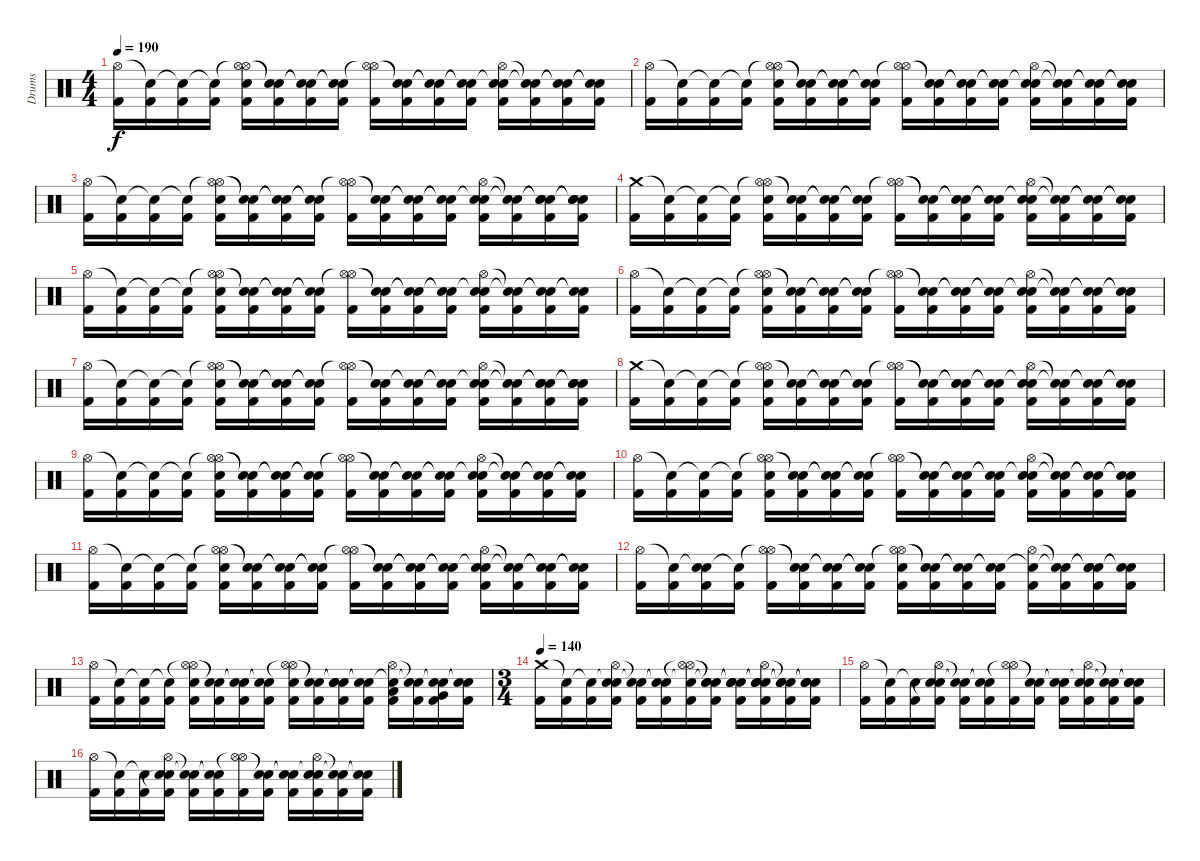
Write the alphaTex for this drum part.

\track ("Drums" "Drums") {instrument percussion}
\staff {score}
\articulation defaults
\ts (4 4)
\tempo 190
\clef neutral
\ks c
("Hi-Hat (open)" "Kick (hit) 2").16{dy f} ("Snare (hit)"{t} "Kick (hit) 2").16 ("Snare (hit)"{t} "Kick (hit) 2").16 ("Snare (hit)"{t} "Kick (hit) 2").16 ("Hi-Hat (open)"{t} "Hi-Hat (open)" "Electric Snare (hit)" "Kick (hit) 2").16 ("Snare (hit)"{t} "Snare (hit)"{t} "Kick (hit) 2").16 ("Snare (hit)"{t} "Snare (hit)"{t} "Kick (hit) 2").16 ("Snare (hit)"{t} "Snare (hit)"{t} "Kick (hit) 2").16 ("Hi-Hat (open)" "Hi-Hat (open)"{t} "Kick (hit) 2").16 ("Snare (hit)"{t} "Snare (hit)"{t} "Kick (hit) 2").16 ("Snare (hit)"{t} "Snare (hit)"{t} "Kick (hit) 2").16 ("Snare (hit)"{t} "Snare (hit)"{t} "Kick (hit) 2").16 ("Snare (hit)"{t} "Hi-Hat (open)" "Electric Snare (hit)" "Kick (hit) 2").16 ("Snare (hit)"{t} "Snare (hit)"{t} "Kick (hit) 2").16 ("Snare (hit)"{t} "Snare (hit)"{t} "Kick (hit) 2").16 ("Snare (hit)"{t} "Snare (hit)"{t} "Kick (hit) 2").16 |
("Hi-Hat (open)" "Kick (hit) 2").16 ("Snare (hit)"{t} "Kick (hit) 2").16 ("Snare (hit)"{t} "Kick (hit) 2").16 ("Snare (hit)"{t} "Kick (hit) 2").16 ("Hi-Hat (open)"{t} "Hi-Hat (open)" "Electric Snare (hit)" "Kick (hit) 2").16 ("Snare (hit)"{t} "Snare (hit)"{t} "Kick (hit) 2").16 ("Snare (hit)"{t} "Snare (hit)"{t} "Kick (hit) 2").16 ("Snare (hit)"{t} "Snare (hit)"{t} "Kick (hit) 2").16 ("Hi-Hat (open)" "Hi-Hat (open)"{t} "Kick (hit) 2").16 ("Snare (hit)"{t} "Snare (hit)"{t} "Kick (hit) 2").16 ("Snare (hit)"{t} "Snare (hit)"{t} "Kick (hit) 2").16 ("Snare (hit)"{t} "Snare (hit)"{t} "Kick (hit) 2").16 ("Snare (hit)"{t} "Hi-Hat (open)" "Electric Snare (hit)" "Kick (hit) 2").16 ("Snare (hit)"{t} "Snare (hit)"{t} "Kick (hit) 2").16 ("Snare (hit)"{t} "Snare (hit)"{t} "Kick (hit) 2").16 ("Snare (hit)"{t} "Snare (hit)"{t} "Kick (hit) 2").16 |
("Hi-Hat (open)" "Kick (hit) 2").16 ("Snare (hit)"{t} "Kick (hit) 2").16 ("Snare (hit)"{t} "Kick (hit) 2").16 ("Snare (hit)"{t} "Kick (hit) 2").16 ("Hi-Hat (open)"{t} "Hi-Hat (open)" "Electric Snare (hit)" "Kick (hit) 2").16 ("Snare (hit)"{t} "Snare (hit)"{t} "Kick (hit) 2").16 ("Snare (hit)"{t} "Snare (hit)"{t} "Kick (hit) 2").16 ("Snare (hit)"{t} "Snare (hit)"{t} "Kick (hit) 2").16 ("Hi-Hat (open)" "Hi-Hat (open)"{t} "Kick (hit) 2").16 ("Snare (hit)"{t} "Snare (hit)"{t} "Kick (hit) 2").16 ("Snare (hit)"{t} "Snare (hit)"{t} "Kick (hit) 2").16 ("Snare (hit)"{t} "Snare (hit)"{t} "Kick (hit) 2").16 ("Snare (hit)"{t} "Hi-Hat (open)" "Electric Snare (hit)" "Kick (hit) 2").16 ("Snare (hit)"{t} "Snare (hit)"{t} "Kick (hit) 2").16 ("Snare (hit)"{t} "Snare (hit)"{t} "Electric Snare (hit)" "Kick (hit) 2").16 ("Snare (hit)"{t} "Snare (hit)"{t} "Electric Snare (hit)" "Kick (hit) 2").16 |
("Crash medium (hit)" "Kick (hit) 2").16 ("Snare (hit)"{t} "Kick (hit) 2").16 ("Snare (hit)"{t} "Kick (hit) 2").16 ("Snare (hit)"{t} "Kick (hit) 2").16 ("Hi-Hat (open)"{t} "Hi-Hat (open)" "Electric Snare (hit)" "Kick (hit) 2").16 ("Snare (hit)"{t} "Snare (hit)"{t} "Kick (hit) 2").16 ("Snare (hit)"{t} "Snare (hit)"{t} "Kick (hit) 2").16 ("Snare (hit)"{t} "Snare (hit)"{t} "Kick (hit) 2").16 ("Hi-Hat (open)" "Hi-Hat (open)"{t} "Kick (hit) 2").16 ("Snare (hit)"{t} "Snare (hit)"{t} "Kick (hit) 2").16 ("Snare (hit)"{t} "Snare (hit)"{t} "Kick (hit) 2").16 ("Snare (hit)"{t} "Snare (hit)"{t} "Kick (hit) 2").16 ("Snare (hit)"{t} "Hi-Hat (open)" "Electric Snare (hit)" "Kick (hit) 2").16 ("Snare (hit)"{t} "Snare (hit)"{t} "Kick (hit) 2").16 ("Snare (hit)"{t} "Snare (hit)"{t} "Kick (hit) 2").16 ("Snare (hit)"{t} "Snare (hit)"{t} "Kick (hit) 2").16 |
("Hi-Hat (open)" "Kick (hit) 2").16 ("Snare (hit)"{t} "Kick (hit) 2").16 ("Snare (hit)"{t} "Kick (hit) 2").16 ("Snare (hit)"{t} "Kick (hit) 2").16 ("Hi-Hat (open)"{t} "Hi-Hat (open)" "Electric Snare (hit)" "Kick (hit) 2").16 ("Snare (hit)"{t} "Snare (hit)"{t} "Kick (hit) 2").16 ("Snare (hit)"{t} "Snare (hit)"{t} "Kick (hit) 2").16 ("Snare (hit)"{t} "Snare (hit)"{t} "Kick (hit) 2").16 ("Hi-Hat (open)" "Hi-Hat (open)"{t} "Kick (hit) 2").16 ("Snare (hit)"{t} "Snare (hit)"{t} "Kick (hit) 2").16 ("Snare (hit)"{t} "Snare (hit)"{t} "Kick (hit) 2").16 ("Snare (hit)"{t} "Snare (hit)"{t} "Kick (hit) 2").16 ("Snare (hit)"{t} "Hi-Hat (open)" "Electric Snare (hit)" "Kick (hit) 2").16 ("Snare (hit)"{t} "Snare (hit)"{t} "Kick (hit) 2").16 ("Snare (hit)"{t} "Snare (hit)"{t} "Kick (hit) 2").16 ("Snare (hit)"{t} "Snare (hit)"{t} "Kick (hit) 2").16 |
("Hi-Hat (open)" "Kick (hit) 2").16 ("Snare (hit)"{t} "Kick (hit) 2").16 ("Snare (hit)"{t} "Kick (hit) 2").16 ("Snare (hit)"{t} "Kick (hit) 2").16 ("Hi-Hat (open)"{t} "Hi-Hat (open)" "Electric Snare (hit)" "Kick (hit) 2").16 ("Snare (hit)"{t} "Snare (hit)"{t} "Kick (hit) 2").16 ("Snare (hit)"{t} "Snare (hit)"{t} "Kick (hit) 2").16 ("Snare (hit)"{t} "Snare (hit)"{t} "Kick (hit) 2").16 ("Hi-Hat (open)" "Hi-Hat (open)"{t} "Kick (hit) 2").16 ("Snare (hit)"{t} "Snare (hit)"{t} "Kick (hit) 2").16 ("Snare (hit)"{t} "Snare (hit)"{t} "Kick (hit) 2").16 ("Snare (hit)"{t} "Snare (hit)"{t} "Kick (hit) 2").16 ("Snare (hit)"{t} "Hi-Hat (open)" "Electric Snare (hit)" "Kick (hit) 2").16 ("Snare (hit)"{t} "Snare (hit)"{t} "Kick (hit) 2").16 ("Snare (hit)"{t} "Snare (hit)"{t} "Kick (hit) 2").16 ("Snare (hit)"{t} "Snare (hit)"{t} "Kick (hit) 2").16 |
("Hi-Hat (open)" "Kick (hit) 2").16 ("Snare (hit)"{t} "Kick (hit) 2").16 ("Snare (hit)"{t} "Kick (hit) 2").16 ("Snare (hit)"{t} "Kick (hit) 2").16 ("Hi-Hat (open)"{t} "Hi-Hat (open)" "Electric Snare (hit)" "Kick (hit) 2").16 ("Snare (hit)"{t} "Snare (hit)"{t} "Kick (hit) 2").16 ("Snare (hit)"{t} "Snare (hit)"{t} "Kick (hit) 2").16 ("Snare (hit)"{t} "Snare (hit)"{t} "Kick (hit) 2").16 ("Hi-Hat (open)" "Hi-Hat (open)"{t} "Kick (hit) 2").16 ("Snare (hit)"{t} "Snare (hit)"{t} "Kick (hit) 2").16 ("Snare (hit)"{t} "Snare (hit)"{t} "Kick (hit) 2").16 ("Snare (hit)"{t} "Snare (hit)"{t} "Kick (hit) 2").16 ("Snare (hit)"{t} "Hi-Hat (open)" "Electric Snare (hit)" "Kick (hit) 2").16 ("Snare (hit)"{t} "Snare (hit)"{t} "Kick (hit) 2").16 ("Snare (hit)"{t} "Snare (hit)"{t} "Electric Snare (hit)" "Kick (hit) 2").16 ("Snare (hit)"{t} "Snare (hit)"{t} "Electric Snare (hit)" "Kick (hit) 2").16 |
("Crash medium (hit)" "Kick (hit) 2").16 ("Snare (hit)"{t} "Kick (hit) 2").16 ("Snare (hit)"{t} "Kick (hit) 2").16 ("Snare (hit)"{t} "Kick (hit) 2").16 ("Hi-Hat (open)"{t} "Hi-Hat (open)" "Electric Snare (hit)" "Kick (hit) 2").16 ("Snare (hit)"{t} "Snare (hit)"{t} "Kick (hit) 2").16 ("Snare (hit)"{t} "Snare (hit)"{t} "Kick (hit) 2").16 ("Snare (hit)"{t} "Snare (hit)"{t} "Kick (hit) 2").16 ("Hi-Hat (open)" "Hi-Hat (open)"{t} "Kick (hit) 2").16 ("Snare (hit)"{t} "Snare (hit)"{t} "Kick (hit) 2").16 ("Snare (hit)"{t} "Snare (hit)"{t} "Kick (hit) 2").16 ("Snare (hit)"{t} "Snare (hit)"{t} "Kick (hit) 2").16 ("Snare (hit)"{t} "Hi-Hat (open)" "Electric Snare (hit)" "Kick (hit) 2").16 ("Snare (hit)"{t} "Snare (hit)"{t} "Kick (hit) 2").16 ("Snare (hit)"{t} "Snare (hit)"{t} "Kick (hit) 2").16 ("Snare (hit)"{t} "Snare (hit)"{t} "Kick (hit) 2").16 |
("Hi-Hat (open)" "Kick (hit) 2").16 ("Snare (hit)"{t} "Kick (hit) 2").16 ("Snare (hit)"{t} "Kick (hit) 2").16 ("Snare (hit)"{t} "Kick (hit) 2").16 ("Hi-Hat (open)"{t} "Hi-Hat (open)" "Electric Snare (hit)" "Kick (hit) 2").16 ("Snare (hit)"{t} "Snare (hit)"{t} "Kick (hit) 2").16 ("Snare (hit)"{t} "Snare (hit)"{t} "Kick (hit) 2").16 ("Snare (hit)"{t} "Snare (hit)"{t} "Kick (hit) 2").16 ("Hi-Hat (open)" "Hi-Hat (open)"{t} "Kick (hit) 2").16 ("Snare (hit)"{t} "Snare (hit)"{t} "Kick (hit) 2").16 ("Snare (hit)"{t} "Snare (hit)"{t} "Kick (hit) 2").16 ("Snare (hit)"{t} "Snare (hit)"{t} "Kick (hit) 2").16 ("Snare (hit)"{t} "Hi-Hat (open)" "Electric Snare (hit)" "Kick (hit) 2").16 ("Snare (hit)"{t} "Snare (hit)"{t} "Kick (hit) 2").16 ("Snare (hit)"{t} "Snare (hit)"{t} "Kick (hit) 2").16 ("Snare (hit)"{t} "Snare (hit)"{t} "Kick (hit) 2").16 |
("Hi-Hat (open)" "Kick (hit) 2").16 ("Snare (hit)"{t} "Kick (hit) 2").16 ("Snare (hit)"{t} "Kick (hit) 2").16 ("Snare (hit)"{t} "Kick (hit) 2").16 ("Hi-Hat (open)"{t} "Hi-Hat (open)" "Electric Snare (hit)" "Kick (hit) 2").16 ("Snare (hit)"{t} "Snare (hit)"{t} "Kick (hit) 2").16 ("Snare (hit)"{t} "Snare (hit)"{t} "Kick (hit) 2").16 ("Snare (hit)"{t} "Snare (hit)"{t} "Kick (hit) 2").16 ("Hi-Hat (open)" "Hi-Hat (open)"{t} "Kick (hit) 2").16 ("Snare (hit)"{t} "Snare (hit)"{t} "Kick (hit) 2").16 ("Snare (hit)"{t} "Snare (hit)"{t} "Kick (hit) 2").16 ("Snare (hit)"{t} "Snare (hit)"{t} "Kick (hit) 2").16 ("Snare (hit)"{t} "Hi-Hat (open)" "Electric Snare (hit)" "Kick (hit) 2").16 ("Snare (hit)"{t} "Snare (hit)"{t} "Kick (hit) 2").16 ("Snare (hit)"{t} "Snare (hit)"{t} "Kick (hit) 2").16 ("Snare (hit)"{t} "Snare (hit)"{t} "Kick (hit) 2").16 |
("Hi-Hat (open)" "Kick (hit) 2").16 ("Snare (hit)"{t} "Kick (hit) 2").16 ("Snare (hit)"{t} "Kick (hit) 2").16 ("Snare (hit)"{t} "Kick (hit) 2").16 ("Hi-Hat (open)"{t} "Hi-Hat (open)" "Electric Snare (hit)" "Kick (hit) 2").16 ("Snare (hit)"{t} "Snare (hit)"{t} "Kick (hit) 2").16 ("Snare (hit)"{t} "Snare (hit)"{t} "Kick (hit) 2").16 ("Snare (hit)"{t} "Snare (hit)"{t} "Kick (hit) 2").16 ("Hi-Hat (open)" "Hi-Hat (open)"{t} "Kick (hit) 2").16 ("Snare (hit)"{t} "Snare (hit)"{t} "Kick (hit) 2").16 ("Snare (hit)"{t} "Snare (hit)"{t} "Kick (hit) 2").16 ("Snare (hit)"{t} "Snare (hit)"{t} "Kick (hit) 2").16 ("Snare (hit)"{t} "Hi-Hat (open)" "Electric Snare (hit)" "Kick (hit) 2").16 ("Snare (hit)"{t} "Snare (hit)"{t} "Kick (hit) 2").16 ("Snare (hit)"{t} "Snare (hit)"{t} "Kick (hit) 2").16 ("Snare (hit)"{t} "Snare (hit)"{t} "Kick (hit) 2").16 |
("Hi-Hat (open)" "Kick (hit) 2").16 ("Snare (hit)"{t} "Kick (hit) 2").16 ("Snare (hit)"{t} "Electric Snare (hit)" "Kick (hit) 2").16 ("Snare (hit)"{t} "Kick (hit) 2").16 ("Hi-Hat (open)"{t} "Hi-Hat (open)" "Kick (hit) 2").16 ("Snare (hit)"{t} "Snare (hit)"{t} "Kick (hit) 2").16 ("Snare (hit)"{t} "Snare (hit)"{t} "Kick (hit) 2").16 ("Snare (hit)"{t} "Snare (hit)"{t} "Kick (hit) 2").16 ("Hi-Hat (open)" "Hi-Hat (open)"{t} "Electric Snare (hit)" "Kick (hit) 2").16 ("Snare (hit)"{t} "Snare (hit)"{t} "Kick (hit) 2").16 ("Snare (hit)"{t} "Snare (hit)"{t} "Kick (hit) 2").16 ("Snare (hit)"{t} "Snare (hit)"{t} "Kick (hit) 2").16 ("Snare (hit)"{t} "Hi-Hat (open)" "Kick (hit) 2").16 ("Snare (hit)"{t} "Snare (hit)"{t} "Kick (hit) 2").16 ("Snare (hit)"{t} "Snare (hit)"{t} "Electric Snare (hit)" "Kick (hit) 2").16 ("Snare (hit)"{t} "Snare (hit)"{t} "Kick (hit) 2").16 |
("Hi-Hat (open)" "Kick (hit) 2").16 ("Snare (hit)"{t} "Kick (hit) 2").16 ("Snare (hit)"{t} "Kick (hit) 2").16 ("Snare (hit)"{t} "Kick (hit) 2").16 ("Hi-Hat (open)"{t} "Hi-Hat (open)" "Electric Snare (hit)" "Kick (hit) 2").16 ("Snare (hit)"{t} "Snare (hit)"{t} "Kick (hit) 2").16 ("Snare (hit)"{t} "Snare (hit)"{t} "Kick (hit) 2").16 ("Snare (hit)"{t} "Snare (hit)"{t} "Kick (hit) 2").16 ("Hi-Hat (open)" "Hi-Hat (open)"{t} "Electric Snare (hit)" "Kick (hit) 2").16 ("Snare (hit)"{t} "Snare (hit)"{t} "Kick (hit) 2").16 ("Snare (hit)"{t} "Snare (hit)"{t} "Electric Snare (hit)" "Kick (hit) 2").16 ("Snare (hit)"{t} "Snare (hit)"{t} "Kick (hit) 2").16 ("Snare (hit)"{t} "Hi-Hat (open)" "Low Tom (hit)" "Kick (hit) 2").16 ("Snare (hit)"{t} "Snare (hit)"{t} "Kick (hit) 2").16 ("Snare (hit)"{t} "Snare (hit)"{t} "Very Low Tom (hit)" "Kick (hit) 2").16 ("Snare (hit)"{t} "Snare (hit)"{t} "Kick (hit) 2").16 |
\ts (3 4)
\tempo 140
("Crash medium (hit)" "Kick (hit) 2").16 ("Snare (hit)"{t} "Kick (hit) 2").16 ("Snare (hit)"{t} "Kick (hit) 2").16 ("Snare (hit)"{t} "Hi-Hat (open)" "Electric Snare (hit)" "Kick (hit) 2").16 ("Snare (hit)"{t} "Snare (hit)"{t} "Kick (hit) 2").16 ("Snare (hit)"{t} "Snare (hit)"{t} "Kick (hit) 2").16 ("Snare (hit)"{t} "Hi-Hat (open)"{t} "Hi-Hat (open)" "Kick (hit) 2").16 ("Snare (hit)"{t} "Snare (hit)"{t} "Snare (hit)"{t} "Kick (hit) 2").16 ("Snare (hit)"{t} "Snare (hit)"{t} "Snare (hit)"{t} "Kick (hit) 2").16 ("Snare (hit)"{t} "Hi-Hat (open)" "Snare (hit)"{t} "Electric Snare (hit)" "Kick (hit) 2").16 ("Snare (hit)"{t} "Snare (hit)"{t} "Snare (hit)"{t} "Kick (hit) 2").16 ("Snare (hit)"{t} "Snare (hit)"{t} "Snare (hit)"{t} "Kick (hit) 2").16 |
("Hi-Hat (open)" "Kick (hit) 2").16 ("Snare (hit)"{t} "Kick (hit) 2").16 ("Snare (hit)"{t} "Kick (hit) 2").16 ("Hi-Hat (open)" "Snare (hit)"{t} "Electric Snare (hit)" "Kick (hit) 2").16 ("Snare (hit)"{t} "Snare (hit)"{t} "Kick (hit) 2").16 ("Snare (hit)"{t} "Snare (hit)"{t} "Kick (hit) 2").16 ("Hi-Hat (open)"{t} "Hi-Hat (open)" "Kick (hit) 2").16 ("Snare (hit)"{t} "Snare (hit)"{t} "Kick (hit) 2").16 ("Snare (hit)"{t} "Snare (hit)"{t} "Kick (hit) 2").16 ("Hi-Hat (open)" "Snare (hit)"{t} "Electric Snare (hit)" "Kick (hit) 2").16 ("Snare (hit)"{t} "Snare (hit)"{t} "Kick (hit) 2").16 ("Snare (hit)"{t} "Snare (hit)"{t} "Electric Snare (hit)" "Kick (hit) 2").16 |
("Hi-Hat (open)" "Kick (hit) 2").16 ("Snare (hit)"{t} "Kick (hit) 2").16 ("Snare (hit)"{t} "Kick (hit) 2").16 ("Hi-Hat (open)" "Snare (hit)"{t} "Electric Snare (hit)" "Kick (hit) 2").16 ("Snare (hit)"{t} "Snare (hit)"{t} "Kick (hit) 2").16 ("Snare (hit)"{t} "Snare (hit)"{t} "Kick (hit) 2").16 ("Hi-Hat (open)"{t} "Hi-Hat (open)" "Kick (hit) 2").16 ("Snare (hit)"{t} "Snare (hit)"{t} "Kick (hit) 2").16 ("Snare (hit)"{t} "Snare (hit)"{t} "Kick (hit) 2").16 ("Hi-Hat (open)" "Snare (hit)"{t} "Electric Snare (hit)" "Kick (hit) 2").16 ("Snare (hit)"{t} "Snare (hit)"{t} "Kick (hit) 2").16 ("Snare (hit)"{t} "Snare (hit)"{t} "Kick (hit) 2").16
